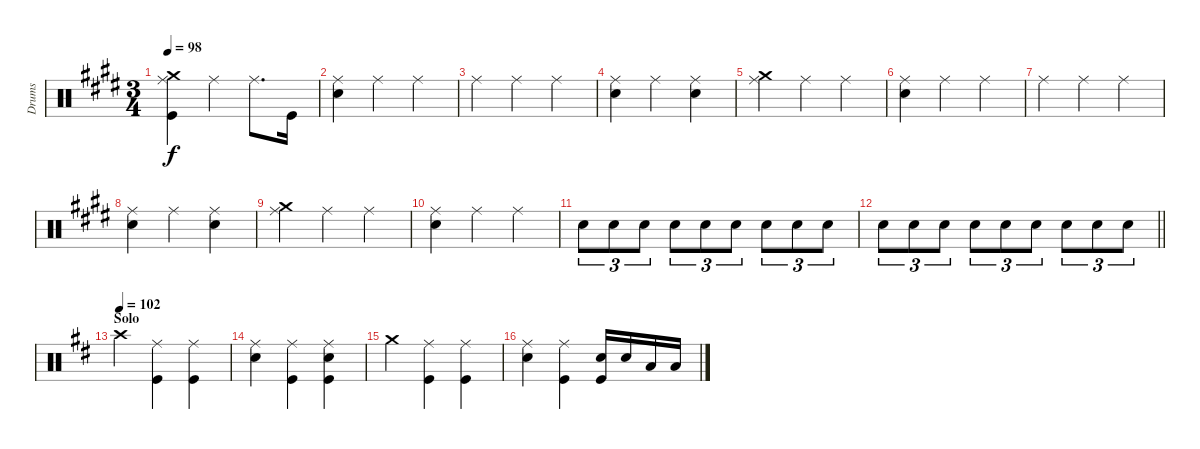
\track ("Drums" "Drums") {instrument percussion}
\staff {score}
\articulation defaults
\ts (3 4)
\tempo 98
\clef neutral
\ks e
("Crash medium (hit)" "Ride (middle)" "Kick (hit)").4{dy f} "Ride (middle)".4 "Ride (middle)".8{d} "Kick (hit)".16 |
("Ride (middle)" "Snare (hit) 2").4 "Ride (middle)".4 "Ride (middle)".4 |
"Ride (middle)".4 "Ride (middle)".4 "Ride (middle)".4 |
("Ride (middle)" "Snare (hit) 2").4 "Ride (middle)".4 ("Ride (middle)" "Snare (hit) 2").4 |
("Crash medium (hit)" "Ride (middle)").4 "Ride (middle)".4 "Ride (middle)".4 |
("Ride (middle)" "Snare (hit) 2").4 "Ride (middle)".4 "Ride (middle)".4 |
"Ride (middle)".4 "Ride (middle)".4 "Ride (middle)".4 |
("Ride (middle)" "Snare (hit) 2").4 "Ride (middle)".4 ("Ride (middle)" "Snare (hit) 2").4 |
("Crash medium (hit)" "Ride (middle)").4 "Ride (middle)".4 "Ride (middle)".4 |
("Ride (middle)" "Snare (hit) 2").4 "Ride (middle)".4 "Ride (middle)".4 |
"Snare (hit) 2".8{tu (3 2)} "Snare (hit) 2".8{tu (3 2)} "Snare (hit) 2".8{tu (3 2)} "Snare (hit) 2".8{tu (3 2)} "Snare (hit) 2".8{tu (3 2)} "Snare (hit) 2".8{tu (3 2)} "Snare (hit) 2".8{tu (3 2)} "Snare (hit) 2".8{tu (3 2)} "Snare (hit) 2".8{tu (3 2)} |
\barLineRight lightlight "Snare (hit) 2".8{tu (3 2)} "Snare (hit) 2".8{tu (3 2)} "Snare (hit) 2".8{tu (3 2)} "Snare (hit) 2".8{tu (3 2)} "Snare (hit) 2".8{tu (3 2)} "Snare (hit) 2".8{tu (3 2)} "Snare (hit) 2".8{tu (3 2)} "Snare (hit) 2".8{tu (3 2)} "Snare (hit) 2".8{tu (3 2)}
|
\section ("" "Solo")
\tempo 102
\ks d "Crash high (hit)".4
("Ride (middle)" "Kick (hit)").4 ("Ride (middle)" "Kick (hit)").4 |
("Ride (middle)" "Snare (hit) 2").4 ("Ride (middle)" "Kick (hit)").4 ("Ride (middle)" "Snare (hit) 2" "Kick (hit)").4 |
"Crash medium (hit)".4 ("Ride (middle)" "Kick (hit)").4 ("Ride (middle)" "Kick (hit)").4 |
("Ride (middle)" "Snare (hit) 2").4 ("Ride (middle)" "Kick (hit)").4 ("Snare (hit) 2" "Kick (hit)").16 "Snare (hit) 2".16 "Low Tom (hit)".16 "Low Tom (hit)".16
